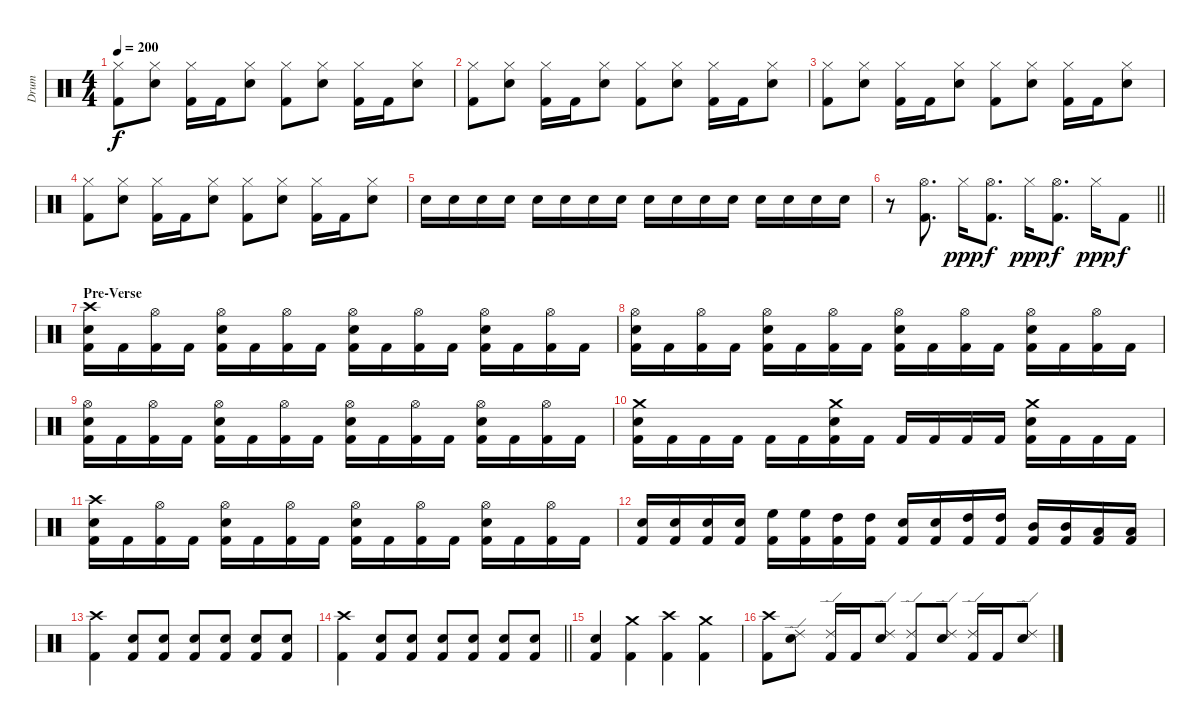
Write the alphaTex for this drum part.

\track ("Drum" "Drum") {instrument percussion}
\staff {score}
\articulation defaults
\ts (4 4)
\tempo 200
\clef neutral
\ks c
("Kick (hit) 2" "Hi-Hat (closed)").8{dy f} ("Snare (hit) 2" "Hi-Hat (closed)").8 ("Kick (hit) 2" "Hi-Hat (closed)").16 "Kick (hit) 2".16 ("Snare (hit) 2" "Hi-Hat (closed)").8 ("Kick (hit) 2" "Hi-Hat (closed)").8 ("Snare (hit) 2" "Hi-Hat (closed)").8 ("Kick (hit) 2" "Hi-Hat (closed)").16 "Kick (hit) 2".16 ("Snare (hit) 2" "Hi-Hat (closed)").8 |
("Kick (hit) 2" "Hi-Hat (closed)").8 ("Snare (hit) 2" "Hi-Hat (closed)").8 ("Kick (hit) 2" "Hi-Hat (closed)").16 "Kick (hit) 2".16 ("Snare (hit) 2" "Hi-Hat (closed)").8 ("Kick (hit) 2" "Hi-Hat (closed)").8 ("Snare (hit) 2" "Hi-Hat (closed)").8 ("Kick (hit) 2" "Hi-Hat (closed)").16 "Kick (hit) 2".16 ("Snare (hit) 2" "Hi-Hat (closed)").8 |
("Kick (hit) 2" "Hi-Hat (closed)").8 ("Snare (hit) 2" "Hi-Hat (closed)").8 ("Kick (hit) 2" "Hi-Hat (closed)").16 "Kick (hit) 2".16 ("Snare (hit) 2" "Hi-Hat (closed)").8 ("Kick (hit) 2" "Hi-Hat (closed)").8 ("Snare (hit) 2" "Hi-Hat (closed)").8 ("Kick (hit) 2" "Hi-Hat (closed)").16 "Kick (hit) 2".16 ("Snare (hit) 2" "Hi-Hat (closed)").8 |
("Kick (hit) 2" "Hi-Hat (closed)").8 ("Snare (hit) 2" "Hi-Hat (closed)").8 ("Kick (hit) 2" "Hi-Hat (closed)").16 "Kick (hit) 2".16 ("Snare (hit) 2" "Hi-Hat (closed)").8 ("Kick (hit) 2" "Hi-Hat (closed)").8 ("Snare (hit) 2" "Hi-Hat (closed)").8 ("Kick (hit) 2" "Hi-Hat (closed)").16 "Kick (hit) 2".16 ("Snare (hit) 2" "Hi-Hat (closed)").8 |
"Snare (hit) 2".16 "Snare (hit) 2".16 "Snare (hit) 2".16 "Snare (hit) 2".16 "Snare (hit) 2".16 "Snare (hit) 2".16 "Snare (hit) 2".16 "Snare (hit) 2".16 "Snare (hit) 2".16 "Snare (hit) 2".16 "Snare (hit) 2".16 "Snare (hit) 2".16 "Snare (hit) 2".16 "Snare (hit) 2".16 "Snare (hit) 2".16 "Snare (hit) 2".16 |
\barLineRight lightlight
r.8 ("Kick (hit) 2" "Hi-Hat (open)").8{d} "Hi-Hat (closed)".16{dy ppp} ("Kick (hit) 2" "Hi-Hat (open)").8{d dy f} "Hi-Hat (closed)".16{dy ppp} ("Kick (hit) 2" "Hi-Hat (open)").8{d dy f} "Hi-Hat (closed)".16{dy ppp} "Kick (hit) 2".8{dy f} |
\section ("" "Pre-Verse")
("Kick (hit) 2" "Snare (hit) 2" "Crash high (hit)").16 "Kick (hit) 2".16 ("Kick (hit) 2" "Hi-Hat (open)").16 "Kick (hit) 2".16 ("Kick (hit) 2" "Snare (hit) 2" "Hi-Hat (open)").16 "Kick (hit) 2".16 ("Kick (hit) 2" "Hi-Hat (open)").16 "Kick (hit) 2".16 ("Kick (hit) 2" "Snare (hit) 2" "Hi-Hat (open)").16 "Kick (hit) 2".16 ("Kick (hit) 2" "Hi-Hat (open)").16 "Kick (hit) 2".16 ("Kick (hit) 2" "Snare (hit) 2" "Hi-Hat (open)").16 "Kick (hit) 2".16 ("Kick (hit) 2" "Hi-Hat (open)").16 "Kick (hit) 2".16 |
("Kick (hit) 2" "Snare (hit) 2" "Hi-Hat (open)").16 "Kick (hit) 2".16 ("Kick (hit) 2" "Hi-Hat (open)").16 "Kick (hit) 2".16 ("Kick (hit) 2" "Snare (hit) 2" "Hi-Hat (open)").16 "Kick (hit) 2".16 ("Kick (hit) 2" "Hi-Hat (open)").16 "Kick (hit) 2".16 ("Kick (hit) 2" "Snare (hit) 2" "Hi-Hat (open)").16 "Kick (hit) 2".16 ("Kick (hit) 2" "Hi-Hat (open)").16 "Kick (hit) 2".16 ("Kick (hit) 2" "Snare (hit) 2" "Hi-Hat (open)").16 "Kick (hit) 2".16 ("Kick (hit) 2" "Hi-Hat (open)").16 "Kick (hit) 2".16 |
("Kick (hit) 2" "Snare (hit) 2" "Hi-Hat (open)").16 "Kick (hit) 2".16 ("Kick (hit) 2" "Hi-Hat (open)").16 "Kick (hit) 2".16 ("Kick (hit) 2" "Snare (hit) 2" "Hi-Hat (open)").16 "Kick (hit) 2".16 ("Kick (hit) 2" "Hi-Hat (open)").16 "Kick (hit) 2".16 ("Kick (hit) 2" "Snare (hit) 2" "Hi-Hat (open)").16 "Kick (hit) 2".16 ("Kick (hit) 2" "Hi-Hat (open)").16 "Kick (hit) 2".16 ("Kick (hit) 2" "Snare (hit) 2" "Hi-Hat (open)").16 "Kick (hit) 2".16 ("Kick (hit) 2" "Hi-Hat (open)").16 "Kick (hit) 2".16 |
("Kick (hit) 2" "Snare (hit) 2" "Crash medium (hit)").16 "Kick (hit) 2".16 "Kick (hit) 2".16 "Kick (hit) 2".16 "Kick (hit) 2".16 "Kick (hit) 2".16 ("Kick (hit) 2" "Snare (hit) 2" "Crash medium (hit)").16 "Kick (hit) 2".16 "Kick (hit) 2".16 "Kick (hit) 2".16 "Kick (hit) 2".16 "Kick (hit) 2".16 ("Kick (hit) 2" "Snare (hit) 2" "Crash medium (hit)").16 "Kick (hit) 2".16 "Kick (hit) 2".16 "Kick (hit) 2".16 |
("Kick (hit) 2" "Snare (hit) 2" "Crash high (hit)").16 "Kick (hit) 2".16 ("Kick (hit) 2" "Hi-Hat (open)").16 "Kick (hit) 2".16 ("Kick (hit) 2" "Snare (hit) 2" "Hi-Hat (open)").16 "Kick (hit) 2".16 ("Kick (hit) 2" "Hi-Hat (open)").16 "Kick (hit) 2".16 ("Kick (hit) 2" "Snare (hit) 2" "Hi-Hat (open)").16 "Kick (hit) 2".16 ("Kick (hit) 2" "Hi-Hat (open)").16 "Kick (hit) 2".16 ("Kick (hit) 2" "Snare (hit) 2" "Hi-Hat (open)").16 "Kick (hit) 2".16 ("Kick (hit) 2" "Hi-Hat (open)").16 "Kick (hit) 2".16 |
("Kick (hit) 2" "Snare (hit) 2").16 ("Kick (hit) 2" "Snare (hit) 2").16 ("Kick (hit) 2" "Snare (hit) 2").16 ("Kick (hit) 2" "Snare (hit) 2").16 ("Kick (hit) 2" "High Floor Tom (hit)").16 ("Kick (hit) 2" "High Floor Tom (hit)").16 ("Kick (hit) 2" "High Tom (hit)").16 ("Kick (hit) 2" "High Tom (hit)").16 ("Kick (hit) 2" "Snare (hit) 2").16 ("Kick (hit) 2" "Snare (hit) 2").16 ("Kick (hit) 2" "High Tom (hit)").16 ("Kick (hit) 2" "High Tom (hit)").16 ("Kick (hit) 2" "Mid Tom (hit)").16 ("Kick (hit) 2" "Mid Tom (hit)").16 ("Kick (hit) 2" "Low Tom (hit)").16 ("Kick (hit) 2" "Low Tom (hit)").16 |
("Kick (hit) 2" "Crash high (hit)").4 ("Kick (hit) 2" "Snare (hit) 2").8 ("Kick (hit) 2" "Snare (hit) 2").8 ("Kick (hit) 2" "Snare (hit) 2").8 ("Kick (hit) 2" "Snare (hit) 2").8 ("Kick (hit) 2" "Snare (hit) 2").8 ("Kick (hit) 2" "Snare (hit) 2").8 |
\barLineRight lightlight
("Kick (hit) 2" "Crash high (hit)").4 ("Kick (hit) 2" "Snare (hit) 2").8 ("Kick (hit) 2" "Snare (hit) 2").8 ("Kick (hit) 2" "Snare (hit) 2").8 ("Kick (hit) 2" "Snare (hit) 2").8 ("Kick (hit) 2" "Snare (hit) 2").8 ("Kick (hit) 2" "Snare (hit) 2").8 |
\section ("" "")
("Kick (hit) 2" "Snare (hit) 2").4 ("Kick (hit) 2" "Crash medium (hit)").4 ("Kick (hit) 2" "Crash high (hit)").4 ("Kick (hit) 2" "Crash medium (hit)").4 |
("Kick (hit) 2" "Crash high (hit)").8 ("Snare (hit) 2" "Ride (edge) 2").8 ("Kick (hit) 2" "Ride (edge) 2").16 "Kick (hit) 2".16 ("Snare (hit) 2" "Ride (edge) 2").8 ("Kick (hit) 2" "Ride (edge) 2").8 ("Snare (hit) 2" "Ride (edge) 2").8 ("Kick (hit) 2" "Ride (edge) 2").16 "Kick (hit) 2".16 ("Snare (hit) 2" "Ride (edge) 2").8
